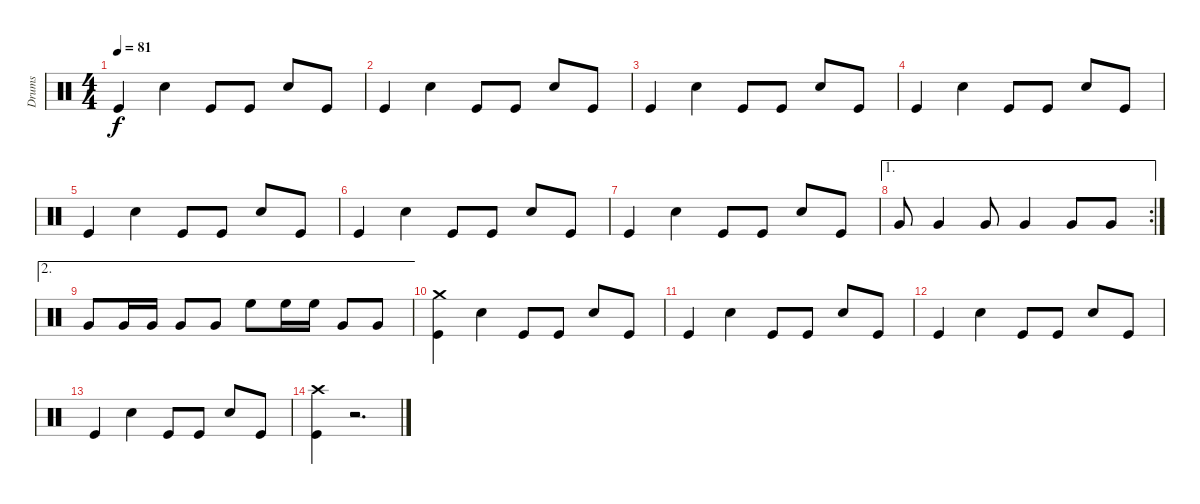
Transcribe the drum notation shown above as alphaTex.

\track ("Drums" "Drums") {instrument percussion}
\staff {score}
\articulation defaults
\ts (4 4)
\tempo 81
\clef neutral
\ks c "Kick (hit)".4{dy f} "Snare (hit) 2".4 "Kick (hit)".8 "Kick (hit)".8 "Snare (hit) 2".8 "Kick (hit)".8
|
"Kick (hit)".4 "Snare (hit) 2".4 "Kick (hit)".8 "Kick (hit)".8 "Snare (hit) 2".8 "Kick (hit)".8 |
"Kick (hit)".4 "Snare (hit) 2".4 "Kick (hit)".8 "Kick (hit)".8 "Snare (hit) 2".8 "Kick (hit)".8 |
"Kick (hit)".4 "Snare (hit) 2".4 "Kick (hit)".8 "Kick (hit)".8 "Snare (hit) 2".8 "Kick (hit)".8 |
"Kick (hit)".4 "Snare (hit) 2".4 "Kick (hit)".8 "Kick (hit)".8 "Snare (hit) 2".8 "Kick (hit)".8 |
"Kick (hit)".4 "Snare (hit) 2".4 "Kick (hit)".8 "Kick (hit)".8 "Snare (hit) 2".8 "Kick (hit)".8 |
"Kick (hit)".4 "Snare (hit) 2".4 "Kick (hit)".8 "Kick (hit)".8 "Snare (hit) 2".8 "Kick (hit)".8 |
\ae 1
\rc 2 "Very Low Tom (hit)".8 "Very Low Tom (hit)".4 "Very Low Tom (hit)".8 "Very Low Tom (hit)".4 "Very Low Tom (hit)".8 "Very Low Tom (hit)".8
|
\ae 2 "Very Low Tom (hit)".8 "Very Low Tom (hit)".16 "Very Low Tom (hit)".16 "Very Low Tom (hit)".8 "Very Low Tom (hit)".8 "High Floor Tom (hit)".8 "High Floor Tom (hit)".16 "High Floor Tom (hit)".16 "Very Low Tom (hit)".8 "Very Low Tom (hit)".8
|
("Crash medium (hit)" "Kick (hit)").4 "Snare (hit) 2".4 "Kick (hit)".8 "Kick (hit)".8 "Snare (hit) 2".8 "Kick (hit)".8 |
"Kick (hit)".4 "Snare (hit) 2".4 "Kick (hit)".8 "Kick (hit)".8 "Snare (hit) 2".8 "Kick (hit)".8 |
"Kick (hit)".4 "Snare (hit) 2".4 "Kick (hit)".8 "Kick (hit)".8 "Snare (hit) 2".8 "Kick (hit)".8 |
"Kick (hit)".4 "Snare (hit) 2".4 "Kick (hit)".8 "Kick (hit)".8 "Snare (hit) 2".8 "Kick (hit)".8 |
("Crash high (hit)" "Kick (hit)").4 r.2{d}
